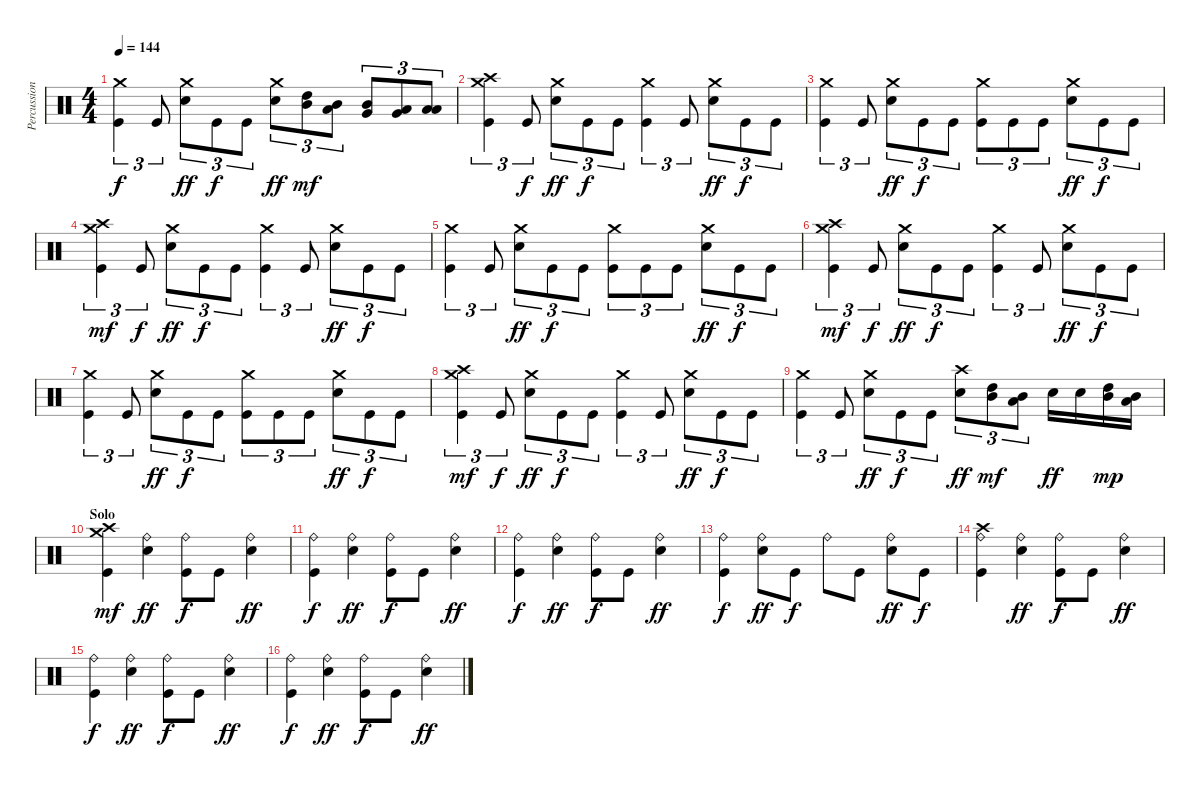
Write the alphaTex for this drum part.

\track ("Percussions" "Percussion") {instrument percussion}
\staff {score}
\articulation defaults
\ts (4 4)
\tempo 144
\clef neutral
\ks c
("Kick (hit)" "Crash medium (hit)").4{tu (3 2) dy f} "Kick (hit)".8{tu (3 2)} ("Electric Snare (hit)" "Crash medium (hit)").8{tu (3 2) dy ff} "Kick (hit)".8{tu (3 2) dy f} "Kick (hit)".8{tu (3 2)} ("Electric Snare (hit)" "Crash medium (hit)").8{tu (3 2) dy ff} ("Mid Tom (hit)" "High Tom (hit)").8{tu (3 2) dy mf} ("Low Tom (hit)" "Mid Tom (hit)").8{tu (3 2)} ("Very Low Tom (hit)" "Mid Tom (hit)").8{tu (3 2)} ("Very Low Tom (hit)" "Low Tom (hit)").8{tu (3 2)} ("Low Floor Tom (hit)" "Low Tom (hit)").8{tu (3 2)} |
("Kick (hit)" "Crash medium (hit)" "Crash high (hit)").4{tu (3 2)} "Kick (hit)".8{tu (3 2) dy f} ("Electric Snare (hit)" "Crash medium (hit)").8{tu (3 2) dy ff} "Kick (hit)".8{tu (3 2) dy f} "Kick (hit)".8{tu (3 2)} ("Kick (hit)" "Crash medium (hit)").4{tu (3 2)} "Kick (hit)".8{tu (3 2)} ("Electric Snare (hit)" "Crash medium (hit)").8{tu (3 2) dy ff} "Kick (hit)".8{tu (3 2) dy f} "Kick (hit)".8{tu (3 2)} |
("Kick (hit)" "Crash medium (hit)").4{tu (3 2)} "Kick (hit)".8{tu (3 2)} ("Electric Snare (hit)" "Crash medium (hit)").8{tu (3 2) dy ff} "Kick (hit)".8{tu (3 2) dy f} "Kick (hit)".8{tu (3 2)} ("Kick (hit)" "Crash medium (hit)").8{tu (3 2)} "Kick (hit)".8{tu (3 2)} "Kick (hit)".8{tu (3 2)} ("Electric Snare (hit)" "Crash medium (hit)").8{tu (3 2) dy ff} "Kick (hit)".8{tu (3 2) dy f} "Kick (hit)".8{tu (3 2)} |
("Kick (hit)" "Crash medium (hit)" "Crash high (hit)").4{tu (3 2) dy mf} "Kick (hit)".8{tu (3 2) dy f} ("Electric Snare (hit)" "Crash medium (hit)").8{tu (3 2) dy ff} "Kick (hit)".8{tu (3 2) dy f} "Kick (hit)".8{tu (3 2)} ("Kick (hit)" "Crash medium (hit)").4{tu (3 2)} "Kick (hit)".8{tu (3 2)} ("Electric Snare (hit)" "Crash medium (hit)").8{tu (3 2) dy ff} "Kick (hit)".8{tu (3 2) dy f} "Kick (hit)".8{tu (3 2)} |
("Kick (hit)" "Crash medium (hit)").4{tu (3 2)} "Kick (hit)".8{tu (3 2)} ("Electric Snare (hit)" "Crash medium (hit)").8{tu (3 2) dy ff} "Kick (hit)".8{tu (3 2) dy f} "Kick (hit)".8{tu (3 2)} ("Kick (hit)" "Crash medium (hit)").8{tu (3 2)} "Kick (hit)".8{tu (3 2)} "Kick (hit)".8{tu (3 2)} ("Electric Snare (hit)" "Crash medium (hit)").8{tu (3 2) dy ff} "Kick (hit)".8{tu (3 2) dy f} "Kick (hit)".8{tu (3 2)} |
("Kick (hit)" "Crash medium (hit)" "Crash high (hit)").4{tu (3 2) dy mf} "Kick (hit)".8{tu (3 2) dy f} ("Electric Snare (hit)" "Crash medium (hit)").8{tu (3 2) dy ff} "Kick (hit)".8{tu (3 2) dy f} "Kick (hit)".8{tu (3 2)} ("Kick (hit)" "Crash medium (hit)").4{tu (3 2)} "Kick (hit)".8{tu (3 2)} ("Electric Snare (hit)" "Crash medium (hit)").8{tu (3 2) dy ff} "Kick (hit)".8{tu (3 2) dy f} "Kick (hit)".8{tu (3 2)} |
("Kick (hit)" "Crash medium (hit)").4{tu (3 2)} "Kick (hit)".8{tu (3 2)} ("Electric Snare (hit)" "Crash medium (hit)").8{tu (3 2) dy ff} "Kick (hit)".8{tu (3 2) dy f} "Kick (hit)".8{tu (3 2)} ("Kick (hit)" "Crash medium (hit)").8{tu (3 2)} "Kick (hit)".8{tu (3 2)} "Kick (hit)".8{tu (3 2)} ("Electric Snare (hit)" "Crash medium (hit)").8{tu (3 2) dy ff} "Kick (hit)".8{tu (3 2) dy f} "Kick (hit)".8{tu (3 2)} |
("Kick (hit)" "Crash medium (hit)" "Crash high (hit)").4{tu (3 2) dy mf} "Kick (hit)".8{tu (3 2) dy f} ("Electric Snare (hit)" "Crash medium (hit)").8{tu (3 2) dy ff} "Kick (hit)".8{tu (3 2) dy f} "Kick (hit)".8{tu (3 2)} ("Kick (hit)" "Crash medium (hit)").4{tu (3 2)} "Kick (hit)".8{tu (3 2)} ("Electric Snare (hit)" "Crash medium (hit)").8{tu (3 2) dy ff} "Kick (hit)".8{tu (3 2) dy f} "Kick (hit)".8{tu (3 2)} |
("Kick (hit)" "Crash medium (hit)").4{tu (3 2)} "Kick (hit)".8{tu (3 2)} ("Electric Snare (hit)" "Crash medium (hit)").8{tu (3 2) dy ff} "Kick (hit)".8{tu (3 2) dy f} "Kick (hit)".8{tu (3 2)} ("Electric Snare (hit)" "Crash high (hit)").8{tu (3 2) dy ff} ("Mid Tom (hit)" "High Tom (hit)").8{tu (3 2) dy mf} ("Low Tom (hit)" "Mid Tom (hit)").8{tu (3 2)} "Electric Snare (hit)".16{dy ff} "Electric Snare (hit)".16 ("Mid Tom (hit)" "High Tom (hit)").16{dy mp} ("Low Tom (hit)" "Mid Tom (hit)").16 |
\section ("" "Solo")
("Kick (hit)" "Crash medium (hit)" "Crash high (hit)").4{dy mf} ("Electric Snare (hit)" "Ride (bell)").4{dy ff} ("Kick (hit)" "Ride (bell)").8{dy f} "Kick (hit)".8 ("Electric Snare (hit)" "Ride (bell)").4{dy ff} |
("Kick (hit)" "Ride (bell)").4{dy f} ("Electric Snare (hit)" "Ride (bell)").4{dy ff} ("Kick (hit)" "Ride (bell)").8{dy f} "Kick (hit)".8 ("Electric Snare (hit)" "Ride (bell)").4{dy ff} |
("Kick (hit)" "Ride (bell)").4{dy f} ("Electric Snare (hit)" "Ride (bell)").4{dy ff} ("Kick (hit)" "Ride (bell)").8{dy f} "Kick (hit)".8 ("Electric Snare (hit)" "Ride (bell)").4{dy ff} |
("Kick (hit)" "Ride (bell)").4{dy f} ("Electric Snare (hit)" "Ride (bell)").8{dy ff} "Kick (hit)".8{dy f} "Ride (bell)".8 "Kick (hit)".8 ("Electric Snare (hit)" "Ride (bell)").8{dy ff} "Kick (hit)".8{dy f} |
("Kick (hit)" "Ride (bell)" "Crash high (hit)").4 ("Electric Snare (hit)" "Ride (bell)").4{dy ff} ("Kick (hit)" "Ride (bell)").8{dy f} "Kick (hit)".8 ("Electric Snare (hit)" "Ride (bell)").4{dy ff} |
("Kick (hit)" "Ride (bell)").4{dy f} ("Electric Snare (hit)" "Ride (bell)").4{dy ff} ("Kick (hit)" "Ride (bell)").8{dy f} "Kick (hit)".8 ("Electric Snare (hit)" "Ride (bell)").4{dy ff} |
("Kick (hit)" "Ride (bell)").4{dy f} ("Electric Snare (hit)" "Ride (bell)").4{dy ff} ("Kick (hit)" "Ride (bell)").8{dy f} "Kick (hit)".8 ("Electric Snare (hit)" "Ride (bell)").4{dy ff}
